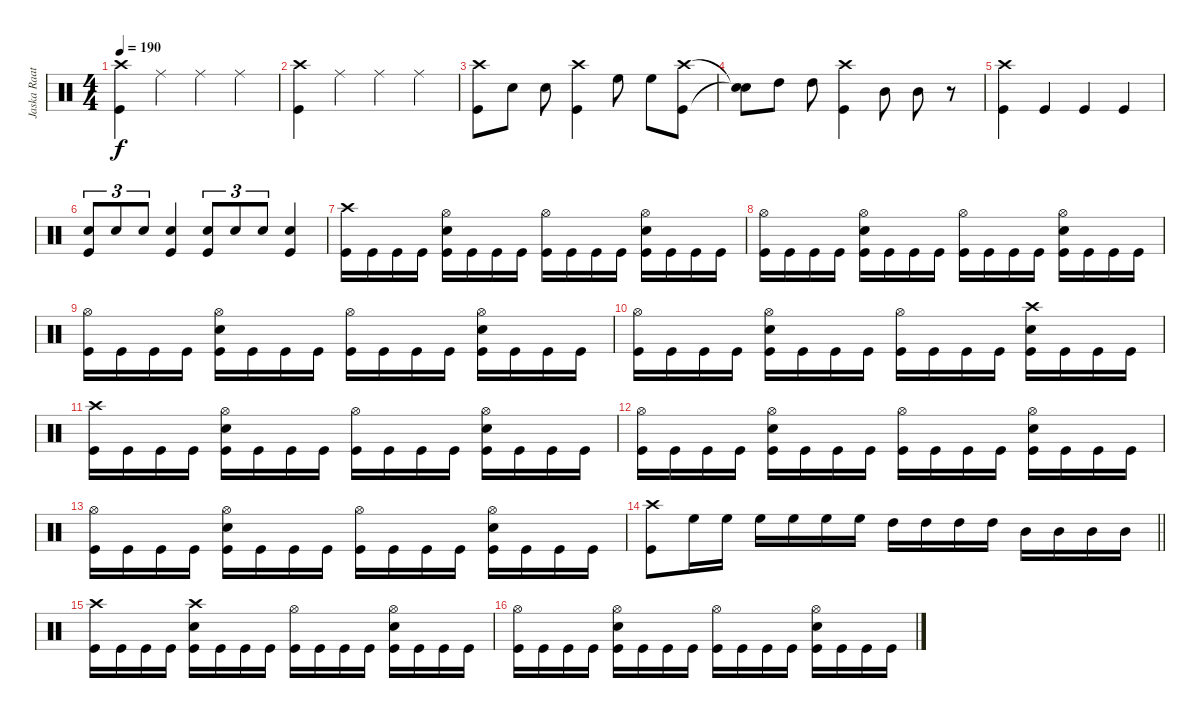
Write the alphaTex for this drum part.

\track ("Jaska Raatikainen" "Jaska Raat") {instrument percussion}
\staff {score}
\articulation defaults
\ts (4 4)
\tempo 190
\clef neutral
\ks c
("Crash high (hit)" "Kick (hit)").4{dy f} "Ride (middle)".4 "Ride (middle)".4 "Ride (middle)".4 |
("Crash high (hit)" "Kick (hit)").4 "Ride (middle)".4 "Ride (middle)".4 "Ride (middle)".4 |
("Crash high (hit)" "Kick (hit)").8 "Snare (hit) 2".8 "Snare (hit) 2".8 ("Crash high (hit)" "Kick (hit)").4 "High Floor Tom (hit)".8 "High Floor Tom (hit)".8 ("Crash high (hit)" "Kick (hit)").8 |
("Snare (hit)"{t} "Snare (hit)"{t}).8 "High Tom (hit)".8 "High Tom (hit)".8 ("Crash high (hit)" "Kick (hit)").4 "Mid Tom (hit)".8 "Mid Tom (hit)".8 r.8 |
("Crash high (hit)" "Kick (hit)").4 "Kick (hit)".4 "Kick (hit)".4 "Kick (hit)".4 |
("Snare (hit) 2" "Kick (hit)").8{tu (3 2)} "Snare (hit) 2".8{tu (3 2)} "Snare (hit) 2".8{tu (3 2)} ("Snare (hit) 2" "Kick (hit)").4 ("Snare (hit) 2" "Kick (hit)").8{tu (3 2)} "Snare (hit) 2".8{tu (3 2)} "Snare (hit) 2".8{tu (3 2)} ("Snare (hit) 2" "Kick (hit)").4 |
("Crash high (hit)" "Kick (hit)").16 "Kick (hit)".16 "Kick (hit)".16 "Kick (hit)".16 ("Hi-Hat (open)" "Snare (hit) 2" "Kick (hit)").16 "Kick (hit)".16 "Kick (hit)".16 "Kick (hit)".16 ("Hi-Hat (open)" "Kick (hit)").16 "Kick (hit)".16 "Kick (hit)".16 "Kick (hit)".16 ("Hi-Hat (open)" "Snare (hit) 2" "Kick (hit)").16 "Kick (hit)".16 "Kick (hit)".16 "Kick (hit)".16 |
("Hi-Hat (open)" "Kick (hit)").16 "Kick (hit)".16 "Kick (hit)".16 "Kick (hit)".16 ("Hi-Hat (open)" "Snare (hit) 2" "Kick (hit)").16 "Kick (hit)".16 "Kick (hit)".16 "Kick (hit)".16 ("Hi-Hat (open)" "Kick (hit)").16 "Kick (hit)".16 "Kick (hit)".16 "Kick (hit)".16 ("Hi-Hat (open)" "Snare (hit) 2" "Kick (hit)").16 "Kick (hit)".16 "Kick (hit)".16 "Kick (hit)".16 |
("Hi-Hat (open)" "Kick (hit)").16 "Kick (hit)".16 "Kick (hit)".16 "Kick (hit)".16 ("Hi-Hat (open)" "Snare (hit) 2" "Kick (hit)").16 "Kick (hit)".16 "Kick (hit)".16 "Kick (hit)".16 ("Hi-Hat (open)" "Kick (hit)").16 "Kick (hit)".16 "Kick (hit)".16 "Kick (hit)".16 ("Hi-Hat (open)" "Snare (hit) 2" "Kick (hit)").16 "Kick (hit)".16 "Kick (hit)".16 "Kick (hit)".16 |
("Hi-Hat (open)" "Kick (hit)").16 "Kick (hit)".16 "Kick (hit)".16 "Kick (hit)".16 ("Hi-Hat (open)" "Snare (hit) 2" "Kick (hit)").16 "Kick (hit)".16 "Kick (hit)".16 "Kick (hit)".16 ("Hi-Hat (open)" "Kick (hit)").16 "Kick (hit)".16 "Kick (hit)".16 "Kick (hit)".16 ("Crash high (hit)" "Snare (hit) 2" "Kick (hit)").16 "Kick (hit)".16 "Kick (hit)".16 "Kick (hit)".16 |
("Crash high (hit)" "Kick (hit)").16 "Kick (hit)".16 "Kick (hit)".16 "Kick (hit)".16 ("Hi-Hat (open)" "Snare (hit) 2" "Kick (hit)").16 "Kick (hit)".16 "Kick (hit)".16 "Kick (hit)".16 ("Hi-Hat (open)" "Kick (hit)").16 "Kick (hit)".16 "Kick (hit)".16 "Kick (hit)".16 ("Hi-Hat (open)" "Snare (hit) 2" "Kick (hit)").16 "Kick (hit)".16 "Kick (hit)".16 "Kick (hit)".16 |
("Hi-Hat (open)" "Kick (hit)").16 "Kick (hit)".16 "Kick (hit)".16 "Kick (hit)".16 ("Hi-Hat (open)" "Snare (hit) 2" "Kick (hit)").16 "Kick (hit)".16 "Kick (hit)".16 "Kick (hit)".16 ("Hi-Hat (open)" "Kick (hit)").16 "Kick (hit)".16 "Kick (hit)".16 "Kick (hit)".16 ("Hi-Hat (open)" "Snare (hit) 2" "Kick (hit)").16 "Kick (hit)".16 "Kick (hit)".16 "Kick (hit)".16 |
("Hi-Hat (open)" "Kick (hit)").16 "Kick (hit)".16 "Kick (hit)".16 "Kick (hit)".16 ("Hi-Hat (open)" "Snare (hit) 2" "Kick (hit)").16 "Kick (hit)".16 "Kick (hit)".16 "Kick (hit)".16 ("Hi-Hat (open)" "Kick (hit)").16 "Kick (hit)".16 "Kick (hit)".16 "Kick (hit)".16 ("Hi-Hat (open)" "Snare (hit) 2" "Kick (hit)").16 "Kick (hit)".16 "Kick (hit)".16 "Kick (hit)".16 |
\barLineRight lightlight
("Crash high (hit)" "Kick (hit)").8 "High Floor Tom (hit)".16 "High Floor Tom (hit)".16 "High Floor Tom (hit)".16 "High Floor Tom (hit)".16 "High Floor Tom (hit)".16 "High Floor Tom (hit)".16 "High Tom (hit)".16 "High Tom (hit)".16 "High Tom (hit)".16 "High Tom (hit)".16 "Mid Tom (hit)".16 "Mid Tom (hit)".16 "Mid Tom (hit)".16 "Mid Tom (hit)".16 |
("Crash high (hit)" "Kick (hit)").16 "Kick (hit)".16 "Kick (hit)".16 "Kick (hit)".16 ("Crash high (hit)" "Snare (hit) 2" "Kick (hit)").16 "Kick (hit)".16 "Kick (hit)".16 "Kick (hit)".16 ("Hi-Hat (open)" "Kick (hit)").16 "Kick (hit)".16 "Kick (hit)".16 "Kick (hit)".16 ("Hi-Hat (open)" "Snare (hit) 2" "Kick (hit)").16 "Kick (hit)".16 "Kick (hit)".16 "Kick (hit)".16 |
("Hi-Hat (open)" "Kick (hit)").16 "Kick (hit)".16 "Kick (hit)".16 "Kick (hit)".16 ("Hi-Hat (open)" "Snare (hit) 2" "Kick (hit)").16 "Kick (hit)".16 "Kick (hit)".16 "Kick (hit)".16 ("Hi-Hat (open)" "Kick (hit)").16 "Kick (hit)".16 "Kick (hit)".16 "Kick (hit)".16 ("Hi-Hat (open)" "Snare (hit) 2" "Kick (hit)").16 "Kick (hit)".16 "Kick (hit)".16 "Kick (hit)".16
